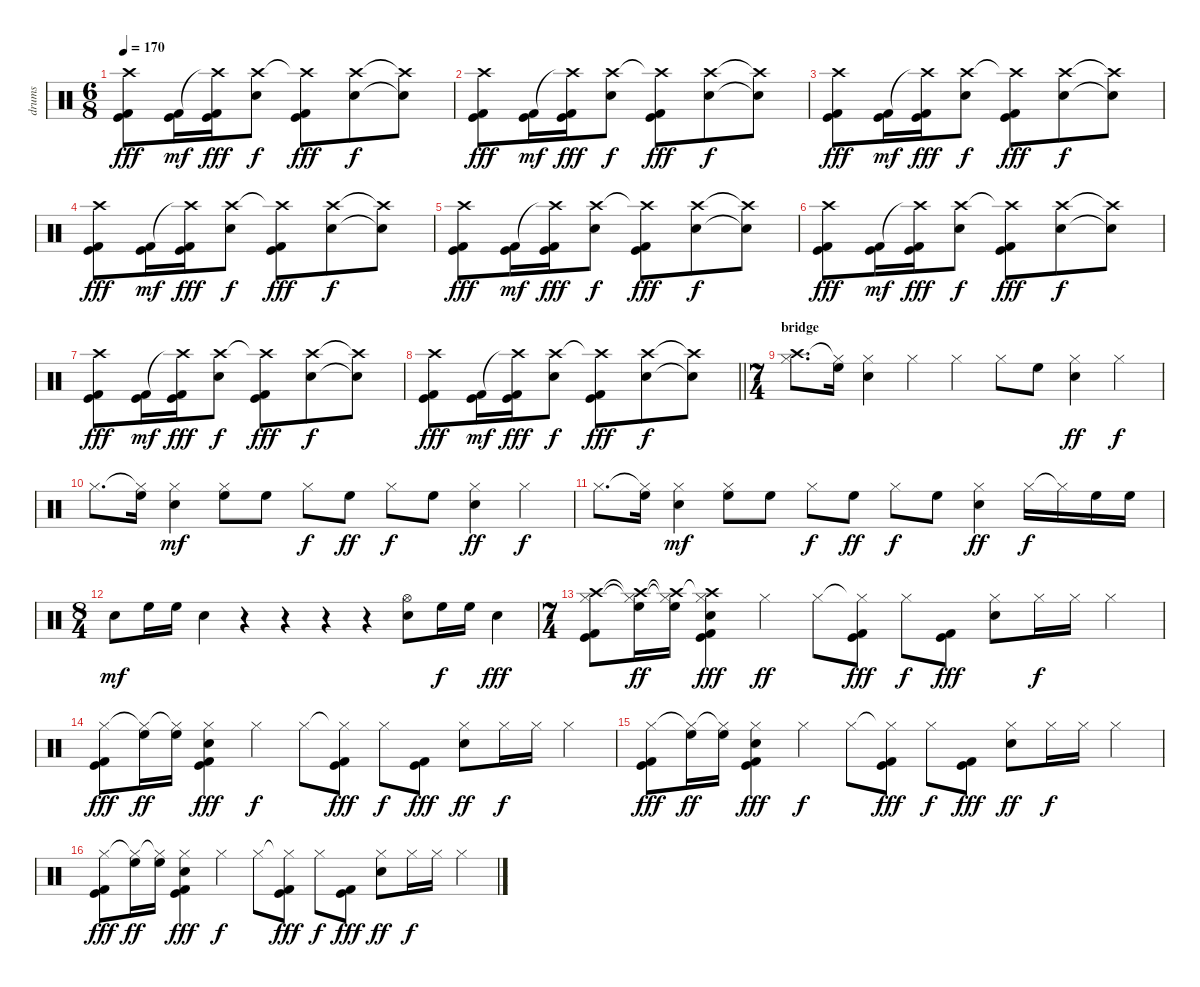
\track ("drums " "drums ") {instrument percussion}
\staff {score}
\articulation defaults
\ts (6 8)
\tempo 170
\clef neutral
\ks c
("Crash high (hit)" "Kick (hit) 2" "Kick (hit)").8{dy fff} ("Kick (hit) 2" "Kick (hit)").16{dy mf} ("Crash high (hit)"{t} "Kick (hit) 2" "Kick (hit)").16{dy fff} ("Crash high (hit)" "Electric Snare (hit)").8{dy f} ("Crash high (hit)"{t} "Kick (hit) 2" "Kick (hit)").8{dy fff} ("Crash high (hit)" "Electric Snare (hit)").8{dy f} ("Crash high (hit)"{t} "Electric Snare (hit)"{t}).8 |
("Crash high (hit)" "Kick (hit) 2" "Kick (hit)").8{dy fff} ("Kick (hit) 2" "Kick (hit)").16{dy mf} ("Crash high (hit)"{t} "Kick (hit) 2" "Kick (hit)").16{dy fff} ("Crash high (hit)" "Electric Snare (hit)").8{dy f} ("Crash high (hit)"{t} "Kick (hit) 2" "Kick (hit)").8{dy fff} ("Crash high (hit)" "Electric Snare (hit)").8{dy f} ("Crash high (hit)"{t} "Electric Snare (hit)"{t}).8 |
("Crash high (hit)" "Kick (hit) 2" "Kick (hit)").8{dy fff} ("Kick (hit) 2" "Kick (hit)").16{dy mf} ("Crash high (hit)"{t} "Kick (hit) 2" "Kick (hit)").16{dy fff} ("Crash high (hit)" "Electric Snare (hit)").8{dy f} ("Crash high (hit)"{t} "Kick (hit) 2" "Kick (hit)").8{dy fff} ("Crash high (hit)" "Electric Snare (hit)").8{dy f} ("Crash high (hit)"{t} "Electric Snare (hit)"{t}).8 |
("Crash high (hit)" "Kick (hit) 2" "Kick (hit)").8{dy fff} ("Kick (hit) 2" "Kick (hit)").16{dy mf} ("Crash high (hit)"{t} "Kick (hit) 2" "Kick (hit)").16{dy fff} ("Crash high (hit)" "Electric Snare (hit)").8{dy f} ("Crash high (hit)"{t} "Kick (hit) 2" "Kick (hit)").8{dy fff} ("Crash high (hit)" "Electric Snare (hit)").8{dy f} ("Crash high (hit)"{t} "Electric Snare (hit)"{t}).8 |
("Crash high (hit)" "Kick (hit) 2" "Kick (hit)").8{dy fff} ("Kick (hit) 2" "Kick (hit)").16{dy mf} ("Crash high (hit)"{t} "Kick (hit) 2" "Kick (hit)").16{dy fff} ("Crash high (hit)" "Electric Snare (hit)").8{dy f} ("Crash high (hit)"{t} "Kick (hit) 2" "Kick (hit)").8{dy fff} ("Crash high (hit)" "Electric Snare (hit)").8{dy f} ("Crash high (hit)"{t} "Electric Snare (hit)"{t}).8 |
("Crash high (hit)" "Kick (hit) 2" "Kick (hit)").8{dy fff} ("Kick (hit) 2" "Kick (hit)").16{dy mf} ("Crash high (hit)"{t} "Kick (hit) 2" "Kick (hit)").16{dy fff} ("Crash high (hit)" "Electric Snare (hit)").8{dy f} ("Crash high (hit)"{t} "Kick (hit) 2" "Kick (hit)").8{dy fff} ("Crash high (hit)" "Electric Snare (hit)").8{dy f} ("Crash high (hit)"{t} "Electric Snare (hit)"{t}).8 |
("Crash high (hit)" "Kick (hit) 2" "Kick (hit)").8{dy fff} ("Kick (hit) 2" "Kick (hit)").16{dy mf} ("Crash high (hit)"{t} "Kick (hit) 2" "Kick (hit)").16{dy fff} ("Crash high (hit)" "Electric Snare (hit)").8{dy f} ("Crash high (hit)"{t} "Kick (hit) 2" "Kick (hit)").8{dy fff} ("Crash high (hit)" "Electric Snare (hit)").8{dy f} ("Crash high (hit)"{t} "Electric Snare (hit)"{t}).8 |
\barLineRight lightlight
("Crash high (hit)" "Kick (hit) 2" "Kick (hit)").8{dy fff} ("Kick (hit) 2" "Kick (hit)").16{dy mf} ("Crash high (hit)"{t} "Kick (hit) 2" "Kick (hit)").16{dy fff} ("Crash high (hit)" "Electric Snare (hit)").8{dy f} ("Crash high (hit)"{t} "Kick (hit) 2" "Kick (hit)").8{dy fff} ("Crash high (hit)" "Electric Snare (hit)").8{dy f} ("Crash high (hit)"{t} "Electric Snare (hit)"{t}).8 |
\ts (7 4)
\section ("" "bridge")
("Crash high (hit)" "Hi-Hat (closed)").8{d} ("Hi-Hat (closed)"{t} "High Floor Tom (hit)").16 ("Hi-Hat (closed)" "Electric Snare (hit)").4 "Hi-Hat (closed)".4 "Hi-Hat (closed)".4 "Hi-Hat (closed)".8 "High Floor Tom (hit)".8 ("Hi-Hat (closed)" "Electric Snare (hit)").4{dy ff} "Hi-Hat (closed)".4{dy f} |
"Hi-Hat (closed)".8{d} ("Hi-Hat (closed)"{t} "High Floor Tom (hit)").16 ("Hi-Hat (closed)" "Electric Snare (hit)").4{dy mf} ("Hi-Hat (closed)" "High Floor Tom (hit)").8 "High Floor Tom (hit)".8 "Hi-Hat (closed)".8{dy f} "High Floor Tom (hit)".8{dy ff} "Hi-Hat (closed)".8{dy f} "High Floor Tom (hit)".8 ("Hi-Hat (closed)" "Electric Snare (hit)").4{dy ff} "Hi-Hat (closed)".4{dy f} |
"Hi-Hat (closed)".8{d} ("Hi-Hat (closed)"{t} "High Floor Tom (hit)").16 ("Hi-Hat (closed)" "Electric Snare (hit)").4{dy mf} ("Hi-Hat (closed)" "High Floor Tom (hit)").8 "High Floor Tom (hit)".8 "Hi-Hat (closed)".8{dy f} "High Floor Tom (hit)".8{dy ff} "Hi-Hat (closed)".8{dy f} "High Floor Tom (hit)".8 ("Hi-Hat (closed)" "Electric Snare (hit)").4{dy ff} "Hi-Hat (closed)".16{dy f} "Hi-Hat (closed)"{t}.16 "High Floor Tom (hit)".16 "High Floor Tom (hit)".16 |
\ts (8 4)
"Electric Snare (hit)".8{dy mf} "High Floor Tom (hit)".16 "High Floor Tom (hit)".16 "Electric Snare (hit)".4 r.4 r.4 r.4 r.4 ("Hi-Hat (open)" "Electric Snare (hit)").8 "High Floor Tom (hit)".16{dy f} "High Floor Tom (hit)".16 "Electric Snare (hit)".4{dy fff} |
\ts (7 4)
("Crash high (hit)" "Hi-Hat (closed)" "Kick (hit) 2" "Kick (hit)").8 ("Crash high (hit)"{t} "Hi-Hat (closed)"{t} "High Floor Tom (hit)").16{dy ff} ("Crash high (hit)"{t} "Hi-Hat (closed)"{t} "High Floor Tom (hit)").16 ("Crash high (hit)"{t} "Hi-Hat (closed)" "Electric Snare (hit)" "Kick (hit) 2" "Kick (hit)").4{dy fff} "Hi-Hat (closed)".4{dy ff} "Hi-Hat (closed)".8 ("Hi-Hat (closed)"{t} "Kick (hit) 2" "Kick (hit)").8{dy fff} "Hi-Hat (closed)".8{dy f} ("Kick (hit) 2" "Kick (hit)").8{dy fff} ("Hi-Hat (closed)" "Electric Snare (hit)").8 "Hi-Hat (closed)".16{dy f} "Hi-Hat (closed)".16 "Hi-Hat (closed)".4 |
("Hi-Hat (closed)" "Kick (hit) 2" "Kick (hit)").8{dy fff} ("Hi-Hat (closed)"{t} "High Floor Tom (hit)").16{dy ff} ("Hi-Hat (closed)"{t} "High Floor Tom (hit)").16 ("Hi-Hat (closed)" "Electric Snare (hit)" "Kick (hit) 2" "Kick (hit)").4{dy fff} "Hi-Hat (closed)".4{dy f} "Hi-Hat (closed)".8 ("Hi-Hat (closed)"{t} "Kick (hit) 2" "Kick (hit)").8{dy fff} "Hi-Hat (closed)".8{dy f} ("Kick (hit) 2" "Kick (hit)").8{dy fff} ("Hi-Hat (closed)" "Electric Snare (hit)").8{dy ff} "Hi-Hat (closed)".16{dy f} "Hi-Hat (closed)".16 "Hi-Hat (closed)".4 |
("Hi-Hat (closed)" "Kick (hit) 2" "Kick (hit)").8{dy fff} ("Hi-Hat (closed)"{t} "High Floor Tom (hit)").16{dy ff} ("Hi-Hat (closed)"{t} "High Floor Tom (hit)").16 ("Hi-Hat (closed)" "Electric Snare (hit)" "Kick (hit) 2" "Kick (hit)").4{dy fff} "Hi-Hat (closed)".4{dy f} "Hi-Hat (closed)".8 ("Hi-Hat (closed)"{t} "Kick (hit) 2" "Kick (hit)").8{dy fff} "Hi-Hat (closed)".8{dy f} ("Kick (hit) 2" "Kick (hit)").8{dy fff} ("Hi-Hat (closed)" "Electric Snare (hit)").8{dy ff} "Hi-Hat (closed)".16{dy f} "Hi-Hat (closed)".16 "Hi-Hat (closed)".4 |
("Hi-Hat (closed)" "Kick (hit) 2" "Kick (hit)").8{dy fff} ("Hi-Hat (closed)"{t} "High Floor Tom (hit)").16{dy ff} ("Hi-Hat (closed)"{t} "High Floor Tom (hit)").16 ("Hi-Hat (closed)" "Electric Snare (hit)" "Kick (hit) 2" "Kick (hit)").4{dy fff} "Hi-Hat (closed)".4{dy f} "Hi-Hat (closed)".8 ("Hi-Hat (closed)"{t} "Kick (hit) 2" "Kick (hit)").8{dy fff} "Hi-Hat (closed)".8{dy f} ("Kick (hit) 2" "Kick (hit)").8{dy fff} ("Hi-Hat (closed)" "Electric Snare (hit)").8{dy ff} "Hi-Hat (closed)".16{dy f} "Hi-Hat (closed)".16 "Hi-Hat (closed)".4
